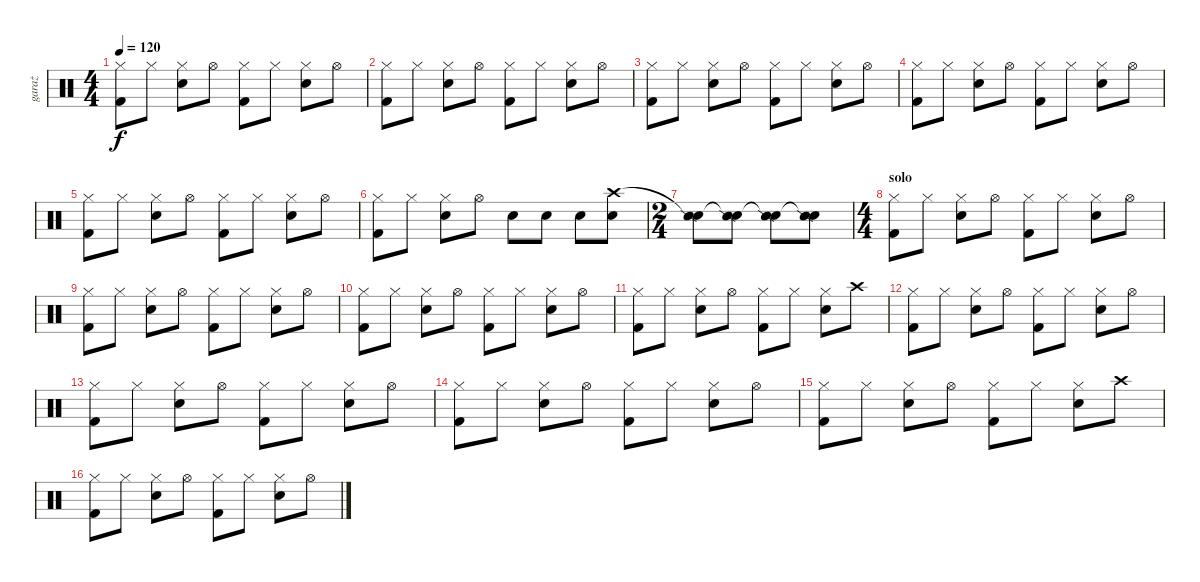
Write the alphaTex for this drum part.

\track ("garaż" "garaż") {instrument percussion}
\staff {score}
\articulation defaults
\ts (4 4)
\tempo 120
\clef neutral
\ks c
("Hi-Hat (closed)" "Kick (hit) 2").8{dy f} "Hi-Hat (closed)".8 ("Hi-Hat (closed)" "Snare (hit) 2").8 "Hi-Hat (open)".8 ("Hi-Hat (closed)" "Kick (hit) 2").8 "Hi-Hat (closed)".8 ("Hi-Hat (closed)" "Snare (hit) 2").8 "Hi-Hat (open)".8 |
("Hi-Hat (closed)" "Kick (hit) 2").8 "Hi-Hat (closed)".8 ("Hi-Hat (closed)" "Snare (hit) 2").8 "Hi-Hat (open)".8 ("Hi-Hat (closed)" "Kick (hit) 2").8 "Hi-Hat (closed)".8 ("Hi-Hat (closed)" "Snare (hit) 2").8 "Hi-Hat (open)".8 |
("Hi-Hat (closed)" "Kick (hit) 2").8 "Hi-Hat (closed)".8 ("Hi-Hat (closed)" "Snare (hit) 2").8 "Hi-Hat (open)".8 ("Hi-Hat (closed)" "Kick (hit) 2").8 "Hi-Hat (closed)".8 ("Hi-Hat (closed)" "Snare (hit) 2").8 "Hi-Hat (open)".8 |
("Hi-Hat (closed)" "Kick (hit) 2").8 "Hi-Hat (closed)".8 ("Hi-Hat (closed)" "Snare (hit) 2").8 "Hi-Hat (open)".8 ("Hi-Hat (closed)" "Kick (hit) 2").8 "Hi-Hat (closed)".8 ("Hi-Hat (closed)" "Snare (hit) 2").8 "Hi-Hat (open)".8 |
("Hi-Hat (closed)" "Kick (hit) 2").8 "Hi-Hat (closed)".8 ("Hi-Hat (closed)" "Snare (hit) 2").8 "Hi-Hat (open)".8 ("Hi-Hat (closed)" "Kick (hit) 2").8 "Hi-Hat (closed)".8 ("Hi-Hat (closed)" "Snare (hit) 2").8 "Hi-Hat (open)".8 |
("Hi-Hat (closed)" "Kick (hit) 2").8 "Hi-Hat (closed)".8 ("Hi-Hat (closed)" "Snare (hit) 2").8 "Hi-Hat (open)".8 "Snare (hit) 2".8 "Snare (hit) 2".8 "Snare (hit) 2".8 ("Crash high (hit)" "Snare (hit) 2").8 |
\ts (2 4)
("Snare (hit)"{t} "Snare (side stick) 2").8 ("Snare (hit)"{t} "Snare (side stick) 2").8 ("Snare (hit)"{t} "Snare (side stick) 2").8 ("Snare (hit)"{t} "Snare (side stick) 2").8 |
\ts (4 4)
\section ("" "solo")
("Hi-Hat (closed)" "Kick (hit) 2").8 "Hi-Hat (closed)".8 ("Hi-Hat (closed)" "Snare (hit) 2").8 "Hi-Hat (open)".8 ("Hi-Hat (closed)" "Kick (hit) 2").8 "Hi-Hat (closed)".8 ("Hi-Hat (closed)" "Snare (hit) 2").8 "Hi-Hat (open)".8 |
("Hi-Hat (closed)" "Kick (hit) 2").8 "Hi-Hat (closed)".8 ("Hi-Hat (closed)" "Snare (hit) 2").8 "Hi-Hat (open)".8 ("Hi-Hat (closed)" "Kick (hit) 2").8 "Hi-Hat (closed)".8 ("Hi-Hat (closed)" "Snare (hit) 2").8 "Hi-Hat (open)".8 |
("Hi-Hat (closed)" "Kick (hit) 2").8 "Hi-Hat (closed)".8 ("Hi-Hat (closed)" "Snare (hit) 2").8 "Hi-Hat (open)".8 ("Hi-Hat (closed)" "Kick (hit) 2").8 "Hi-Hat (closed)".8 ("Hi-Hat (closed)" "Snare (hit) 2").8 "Hi-Hat (open)".8 |
("Hi-Hat (closed)" "Kick (hit) 2").8 "Hi-Hat (closed)".8 ("Hi-Hat (closed)" "Snare (hit) 2").8 "Hi-Hat (open)".8 ("Hi-Hat (closed)" "Kick (hit) 2").8 "Hi-Hat (closed)".8 ("Hi-Hat (closed)" "Snare (hit) 2").8 "Crash high (hit)".8 |
("Hi-Hat (closed)" "Kick (hit) 2").8 "Hi-Hat (closed)".8 ("Hi-Hat (closed)" "Snare (hit) 2").8 "Hi-Hat (open)".8 ("Hi-Hat (closed)" "Kick (hit) 2").8 "Hi-Hat (closed)".8 ("Hi-Hat (closed)" "Snare (hit) 2").8 "Hi-Hat (open)".8 |
("Hi-Hat (closed)" "Kick (hit) 2").8 "Hi-Hat (closed)".8 ("Hi-Hat (closed)" "Snare (hit) 2").8 "Hi-Hat (open)".8 ("Hi-Hat (closed)" "Kick (hit) 2").8 "Hi-Hat (closed)".8 ("Hi-Hat (closed)" "Snare (hit) 2").8 "Hi-Hat (open)".8 |
("Hi-Hat (closed)" "Kick (hit) 2").8 "Hi-Hat (closed)".8 ("Hi-Hat (closed)" "Snare (hit) 2").8 "Hi-Hat (open)".8 ("Hi-Hat (closed)" "Kick (hit) 2").8 "Hi-Hat (closed)".8 ("Hi-Hat (closed)" "Snare (hit) 2").8 "Hi-Hat (open)".8 |
("Hi-Hat (closed)" "Kick (hit) 2").8 "Hi-Hat (closed)".8 ("Hi-Hat (closed)" "Snare (hit) 2").8 "Hi-Hat (open)".8 ("Hi-Hat (closed)" "Kick (hit) 2").8 "Hi-Hat (closed)".8 ("Hi-Hat (closed)" "Snare (hit) 2").8 "Crash high (hit)".8 |
("Hi-Hat (closed)" "Kick (hit) 2").8 "Hi-Hat (closed)".8 ("Hi-Hat (closed)" "Snare (hit) 2").8 "Hi-Hat (open)".8 ("Hi-Hat (closed)" "Kick (hit) 2").8 "Hi-Hat (closed)".8 ("Hi-Hat (closed)" "Snare (hit) 2").8 "Hi-Hat (open)".8
